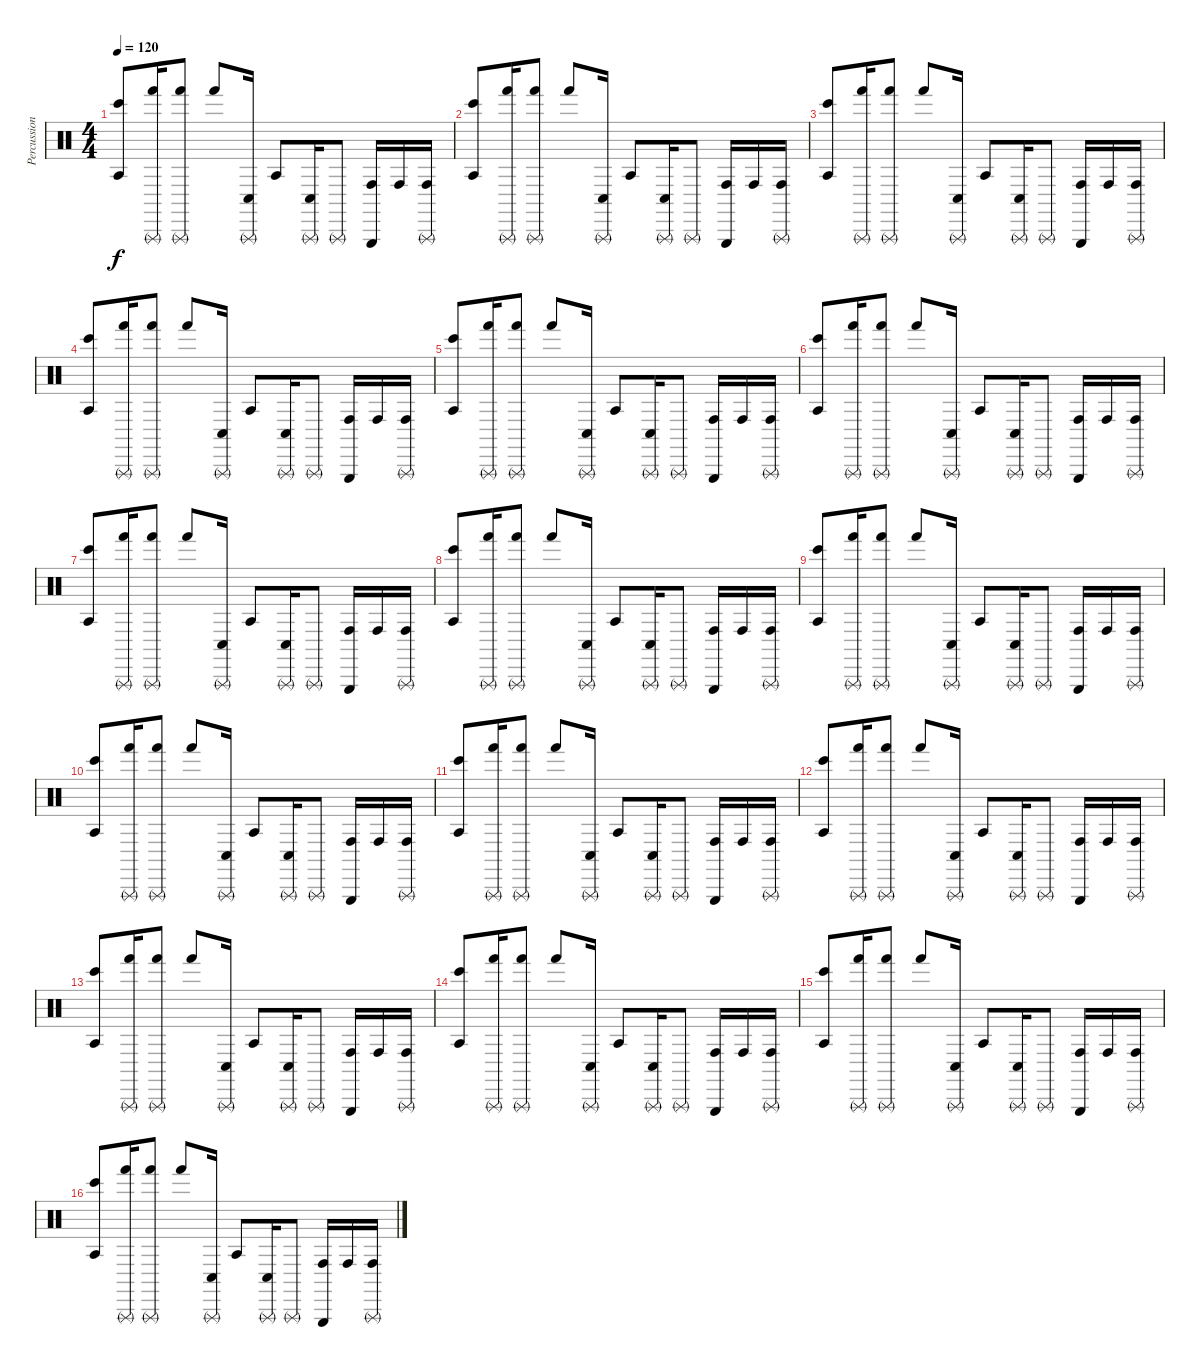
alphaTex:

\track ("Percussion" "Percussion") {instrument percussion}
\staff {score}
\articulation defaults
\ts (4 4)
\tempo 120
\clef neutral
\ks c
("Agogo tow (hit)" "Bongo High (hit)").8{dy f} ("Triangle (rnute)" "Hand (hit)").16 ("Triangle (rnute)" "Hand (hit)").8 "Hand (hit)".8 ("Triangle (rnute)" "Conga low (hit)").16 "Agogo tow (hit)".8 ("Triangle (rnute)" "Conga low (hit)").16 "Triangle (rnute)".8 ("Triangle (hit)" "Conga high (hit)").16 "Conga high (hit)".16 ("Triangle (rnute)" "Conga high (hit)").16 |
("Agogo tow (hit)" "Bongo High (hit)").8 ("Triangle (rnute)" "Hand (hit)").16 ("Triangle (rnute)" "Hand (hit)").8 "Hand (hit)".8 ("Triangle (rnute)" "Conga low (hit)").16 "Agogo tow (hit)".8 ("Triangle (rnute)" "Conga low (hit)").16 "Triangle (rnute)".8 ("Triangle (hit)" "Conga high (hit)").16 "Conga high (hit)".16 ("Triangle (rnute)" "Conga high (hit)").16 |
("Agogo tow (hit)" "Bongo High (hit)").8 ("Triangle (rnute)" "Hand (hit)").16 ("Triangle (rnute)" "Hand (hit)").8 "Hand (hit)".8 ("Triangle (rnute)" "Conga low (hit)").16 "Agogo tow (hit)".8 ("Triangle (rnute)" "Conga low (hit)").16 "Triangle (rnute)".8 ("Triangle (hit)" "Conga high (hit)").16 "Conga high (hit)".16 ("Triangle (rnute)" "Conga high (hit)").16 |
("Agogo tow (hit)" "Bongo High (hit)").8 ("Triangle (rnute)" "Hand (hit)").16 ("Triangle (rnute)" "Hand (hit)").8 "Hand (hit)".8 ("Triangle (rnute)" "Conga low (hit)").16 "Agogo tow (hit)".8 ("Triangle (rnute)" "Conga low (hit)").16 "Triangle (rnute)".8 ("Triangle (hit)" "Conga high (hit)").16 "Conga high (hit)".16 ("Triangle (rnute)" "Conga high (hit)").16 |
("Agogo tow (hit)" "Bongo High (hit)").8 ("Triangle (rnute)" "Hand (hit)").16 ("Triangle (rnute)" "Hand (hit)").8 "Hand (hit)".8 ("Triangle (rnute)" "Conga low (hit)").16 "Agogo tow (hit)".8 ("Triangle (rnute)" "Conga low (hit)").16 "Triangle (rnute)".8 ("Triangle (hit)" "Conga high (hit)").16 "Conga high (hit)".16 ("Triangle (rnute)" "Conga high (hit)").16 |
("Agogo tow (hit)" "Bongo High (hit)").8 ("Triangle (rnute)" "Hand (hit)").16 ("Triangle (rnute)" "Hand (hit)").8 "Hand (hit)".8 ("Triangle (rnute)" "Conga low (hit)").16 "Agogo tow (hit)".8 ("Triangle (rnute)" "Conga low (hit)").16 "Triangle (rnute)".8 ("Triangle (hit)" "Conga high (hit)").16 "Conga high (hit)".16 ("Triangle (rnute)" "Conga high (hit)").16 |
("Agogo tow (hit)" "Bongo High (hit)").8 ("Triangle (rnute)" "Hand (hit)").16 ("Triangle (rnute)" "Hand (hit)").8 "Hand (hit)".8 ("Triangle (rnute)" "Conga low (hit)").16 "Agogo tow (hit)".8 ("Triangle (rnute)" "Conga low (hit)").16 "Triangle (rnute)".8 ("Triangle (hit)" "Conga high (hit)").16 "Conga high (hit)".16 ("Triangle (rnute)" "Conga high (hit)").16 |
("Agogo tow (hit)" "Bongo High (hit)").8 ("Triangle (rnute)" "Hand (hit)").16 ("Triangle (rnute)" "Hand (hit)").8 "Hand (hit)".8 ("Triangle (rnute)" "Conga low (hit)").16 "Agogo tow (hit)".8 ("Triangle (rnute)" "Conga low (hit)").16 "Triangle (rnute)".8 ("Triangle (hit)" "Conga high (hit)").16 "Conga high (hit)".16 ("Triangle (rnute)" "Conga high (hit)").16 |
("Agogo tow (hit)" "Bongo High (hit)").8 ("Triangle (rnute)" "Hand (hit)").16 ("Triangle (rnute)" "Hand (hit)").8 "Hand (hit)".8 ("Triangle (rnute)" "Conga low (hit)").16 "Agogo tow (hit)".8 ("Triangle (rnute)" "Conga low (hit)").16 "Triangle (rnute)".8 ("Triangle (hit)" "Conga high (hit)").16 "Conga high (hit)".16 ("Triangle (rnute)" "Conga high (hit)").16 |
("Agogo tow (hit)" "Bongo High (hit)").8 ("Triangle (rnute)" "Hand (hit)").16 ("Triangle (rnute)" "Hand (hit)").8 "Hand (hit)".8 ("Triangle (rnute)" "Conga low (hit)").16 "Agogo tow (hit)".8 ("Triangle (rnute)" "Conga low (hit)").16 "Triangle (rnute)".8 ("Triangle (hit)" "Conga high (hit)").16 "Conga high (hit)".16 ("Triangle (rnute)" "Conga high (hit)").16 |
("Agogo tow (hit)" "Bongo High (hit)").8 ("Triangle (rnute)" "Hand (hit)").16 ("Triangle (rnute)" "Hand (hit)").8 "Hand (hit)".8 ("Triangle (rnute)" "Conga low (hit)").16 "Agogo tow (hit)".8 ("Triangle (rnute)" "Conga low (hit)").16 "Triangle (rnute)".8 ("Triangle (hit)" "Conga high (hit)").16 "Conga high (hit)".16 ("Triangle (rnute)" "Conga high (hit)").16 |
("Agogo tow (hit)" "Bongo High (hit)").8 ("Triangle (rnute)" "Hand (hit)").16 ("Triangle (rnute)" "Hand (hit)").8 "Hand (hit)".8 ("Triangle (rnute)" "Conga low (hit)").16 "Agogo tow (hit)".8 ("Triangle (rnute)" "Conga low (hit)").16 "Triangle (rnute)".8 ("Triangle (hit)" "Conga high (hit)").16 "Conga high (hit)".16 ("Triangle (rnute)" "Conga high (hit)").16 |
("Agogo tow (hit)" "Bongo High (hit)").8 ("Triangle (rnute)" "Hand (hit)").16 ("Triangle (rnute)" "Hand (hit)").8 "Hand (hit)".8 ("Triangle (rnute)" "Conga low (hit)").16 "Agogo tow (hit)".8 ("Triangle (rnute)" "Conga low (hit)").16 "Triangle (rnute)".8 ("Triangle (hit)" "Conga high (hit)").16 "Conga high (hit)".16 ("Triangle (rnute)" "Conga high (hit)").16 |
("Agogo tow (hit)" "Bongo High (hit)").8 ("Triangle (rnute)" "Hand (hit)").16 ("Triangle (rnute)" "Hand (hit)").8 "Hand (hit)".8 ("Triangle (rnute)" "Conga low (hit)").16 "Agogo tow (hit)".8 ("Triangle (rnute)" "Conga low (hit)").16 "Triangle (rnute)".8 ("Triangle (hit)" "Conga high (hit)").16 "Conga high (hit)".16 ("Triangle (rnute)" "Conga high (hit)").16 |
("Agogo tow (hit)" "Bongo High (hit)").8 ("Triangle (rnute)" "Hand (hit)").16 ("Triangle (rnute)" "Hand (hit)").8 "Hand (hit)".8 ("Triangle (rnute)" "Conga low (hit)").16 "Agogo tow (hit)".8 ("Triangle (rnute)" "Conga low (hit)").16 "Triangle (rnute)".8 ("Triangle (hit)" "Conga high (hit)").16 "Conga high (hit)".16 ("Triangle (rnute)" "Conga high (hit)").16 |
("Agogo tow (hit)" "Bongo High (hit)").8 ("Triangle (rnute)" "Hand (hit)").16 ("Triangle (rnute)" "Hand (hit)").8 "Hand (hit)".8 ("Triangle (rnute)" "Conga low (hit)").16 "Agogo tow (hit)".8 ("Triangle (rnute)" "Conga low (hit)").16 "Triangle (rnute)".8 ("Triangle (hit)" "Conga high (hit)").16 "Conga high (hit)".16 ("Triangle (rnute)" "Conga high (hit)").16
